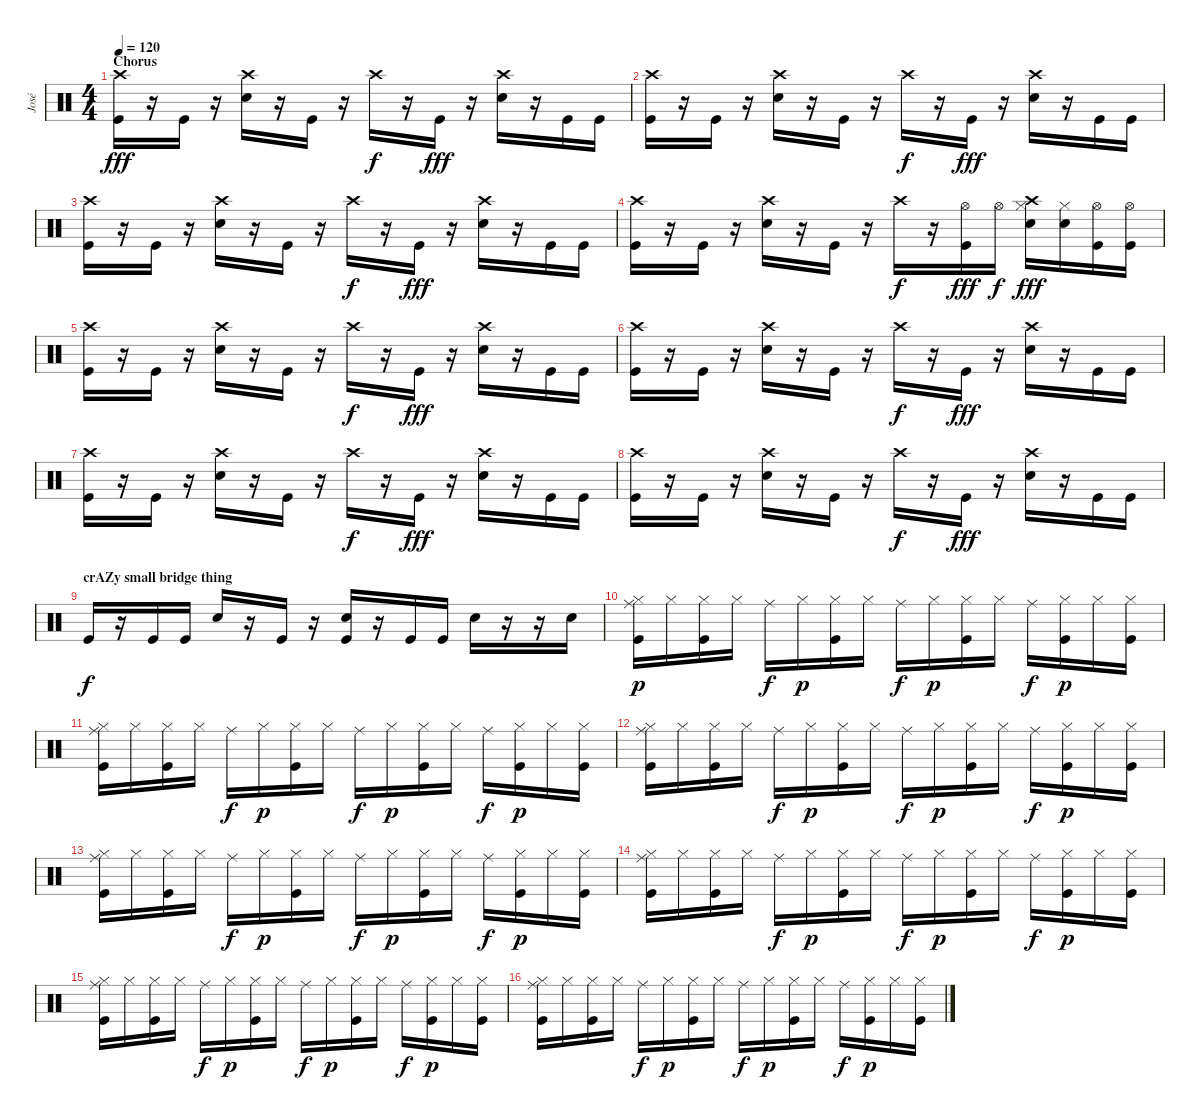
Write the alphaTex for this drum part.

\track ("José" "José") {instrument percussion}
\staff {score}
\articulation defaults
\ts (4 4)
\section ("" "Chorus")
\tempo 120
\clef neutral
\ks c
("Crash high (hit)" "Kick (hit)").16{dy fff} r.16 "Kick (hit)".16 r.16 ("Crash high (hit)" "Electric Snare (hit)").16 r.16 "Kick (hit)".16 r.16 "Crash high (hit)".16{dy f} r.16 "Kick (hit)".16{dy fff} r.16 ("Crash high (hit)" "Electric Snare (hit)").16 r.16 "Kick (hit)".16 "Kick (hit)".16 |
("Crash high (hit)" "Kick (hit)").16 r.16 "Kick (hit)".16 r.16 ("Crash high (hit)" "Electric Snare (hit)").16 r.16 "Kick (hit)".16 r.16 "Crash high (hit)".16{dy f} r.16 "Kick (hit)".16{dy fff} r.16 ("Crash high (hit)" "Electric Snare (hit)").16 r.16 "Kick (hit)".16 "Kick (hit)".16 |
("Crash high (hit)" "Kick (hit)").16 r.16 "Kick (hit)".16 r.16 ("Crash high (hit)" "Electric Snare (hit)").16 r.16 "Kick (hit)".16 r.16 "Crash high (hit)".16{dy f} r.16 "Kick (hit)".16{dy fff} r.16 ("Crash high (hit)" "Electric Snare (hit)").16 r.16 "Kick (hit)".16 "Kick (hit)".16 |
("Crash high (hit)" "Kick (hit)").16 r.16 "Kick (hit)".16 r.16 ("Crash high (hit)" "Electric Snare (hit)").16 r.16 "Kick (hit)".16 r.16 "Crash high (hit)".16{dy f} r.16 ("Hi-Hat (open)" "Kick (hit)").16{dy fff} "Hi-Hat (open)".16{dy f} ("Crash high (hit)" "Hi-Hat (closed)" "Electric Snare (hit)").16{dy fff} ("Hi-Hat (closed)" "Electric Snare (hit)").16 ("Hi-Hat (open)" "Kick (hit)").16 ("Hi-Hat (open)" "Kick (hit)").16 |
("Crash high (hit)" "Kick (hit)").16 r.16 "Kick (hit)".16 r.16 ("Crash high (hit)" "Electric Snare (hit)").16 r.16 "Kick (hit)".16 r.16 "Crash high (hit)".16{dy f} r.16 "Kick (hit)".16{dy fff} r.16 ("Crash high (hit)" "Electric Snare (hit)").16 r.16 "Kick (hit)".16 "Kick (hit)".16 |
("Crash high (hit)" "Kick (hit)").16 r.16 "Kick (hit)".16 r.16 ("Crash high (hit)" "Electric Snare (hit)").16 r.16 "Kick (hit)".16 r.16 "Crash high (hit)".16{dy f} r.16 "Kick (hit)".16{dy fff} r.16 ("Crash high (hit)" "Electric Snare (hit)").16 r.16 "Kick (hit)".16 "Kick (hit)".16 |
("Crash high (hit)" "Kick (hit)").16 r.16 "Kick (hit)".16 r.16 ("Crash high (hit)" "Electric Snare (hit)").16 r.16 "Kick (hit)".16 r.16 "Crash high (hit)".16{dy f} r.16 "Kick (hit)".16{dy fff} r.16 ("Crash high (hit)" "Electric Snare (hit)").16 r.16 "Kick (hit)".16 "Kick (hit)".16 |
("Crash high (hit)" "Kick (hit)").16 r.16 "Kick (hit)".16 r.16 ("Crash high (hit)" "Electric Snare (hit)").16 r.16 "Kick (hit)".16 r.16 "Crash high (hit)".16{dy f} r.16 "Kick (hit)".16{dy fff} r.16 ("Crash high (hit)" "Electric Snare (hit)").16 r.16 "Kick (hit)".16 "Kick (hit)".16 |
\section ("" "crAZy small bridge thing")
"Kick (hit)".16{dy f} r.16 "Kick (hit)".16 "Kick (hit)".16 "Electric Snare (hit)".16 r.16 "Kick (hit)".16 r.16 ("Electric Snare (hit)" "Kick (hit)").16 r.16 "Kick (hit)".16 "Kick (hit)".16 "Electric Snare (hit)".16 r.16 r.16 "Electric Snare (hit)".16 |
("Ride (middle)" "Hi-Hat (closed)" "Kick (hit)").16{dy p} "Hi-Hat (closed)".16 ("Hi-Hat (closed)" "Kick (hit)").16 "Hi-Hat (closed)".16 "Ride (middle)".16{dy f} "Hi-Hat (closed)".16{dy p} ("Hi-Hat (closed)" "Kick (hit)").16 "Hi-Hat (closed)".16 "Ride (middle)".16{dy f} "Hi-Hat (closed)".16{dy p} ("Hi-Hat (closed)" "Kick (hit)").16 "Hi-Hat (closed)".16 "Ride (middle)".16{dy f} ("Hi-Hat (closed)" "Kick (hit)").16{dy p} "Hi-Hat (closed)".16 ("Hi-Hat (closed)" "Kick (hit)").16 |
("Ride (middle)" "Hi-Hat (closed)" "Kick (hit)").16 "Hi-Hat (closed)".16 ("Hi-Hat (closed)" "Kick (hit)").16 "Hi-Hat (closed)".16 "Ride (middle)".16{dy f} "Hi-Hat (closed)".16{dy p} ("Hi-Hat (closed)" "Kick (hit)").16 "Hi-Hat (closed)".16 "Ride (middle)".16{dy f} "Hi-Hat (closed)".16{dy p} ("Hi-Hat (closed)" "Kick (hit)").16 "Hi-Hat (closed)".16 "Ride (middle)".16{dy f} ("Hi-Hat (closed)" "Kick (hit)").16{dy p} "Hi-Hat (closed)".16 ("Hi-Hat (closed)" "Kick (hit)").16 |
("Ride (middle)" "Hi-Hat (closed)" "Kick (hit)").16 "Hi-Hat (closed)".16 ("Hi-Hat (closed)" "Kick (hit)").16 "Hi-Hat (closed)".16 "Ride (middle)".16{dy f} "Hi-Hat (closed)".16{dy p} ("Hi-Hat (closed)" "Kick (hit)").16 "Hi-Hat (closed)".16 "Ride (middle)".16{dy f} "Hi-Hat (closed)".16{dy p} ("Hi-Hat (closed)" "Kick (hit)").16 "Hi-Hat (closed)".16 "Ride (middle)".16{dy f} ("Hi-Hat (closed)" "Kick (hit)").16{dy p} "Hi-Hat (closed)".16 ("Hi-Hat (closed)" "Kick (hit)").16 |
("Ride (middle)" "Hi-Hat (closed)" "Kick (hit)").16 "Hi-Hat (closed)".16 ("Hi-Hat (closed)" "Kick (hit)").16 "Hi-Hat (closed)".16 "Ride (middle)".16{dy f} "Hi-Hat (closed)".16{dy p} ("Hi-Hat (closed)" "Kick (hit)").16 "Hi-Hat (closed)".16 "Ride (middle)".16{dy f} "Hi-Hat (closed)".16{dy p} ("Hi-Hat (closed)" "Kick (hit)").16 "Hi-Hat (closed)".16 "Ride (middle)".16{dy f} ("Hi-Hat (closed)" "Kick (hit)").16{dy p} "Hi-Hat (closed)".16 ("Hi-Hat (closed)" "Kick (hit)").16 |
("Ride (middle)" "Hi-Hat (closed)" "Kick (hit)").16 "Hi-Hat (closed)".16 ("Hi-Hat (closed)" "Kick (hit)").16 "Hi-Hat (closed)".16 "Ride (middle)".16{dy f} "Hi-Hat (closed)".16{dy p} ("Hi-Hat (closed)" "Kick (hit)").16 "Hi-Hat (closed)".16 "Ride (middle)".16{dy f} "Hi-Hat (closed)".16{dy p} ("Hi-Hat (closed)" "Kick (hit)").16 "Hi-Hat (closed)".16 "Ride (middle)".16{dy f} ("Hi-Hat (closed)" "Kick (hit)").16{dy p} "Hi-Hat (closed)".16 ("Hi-Hat (closed)" "Kick (hit)").16 |
("Ride (middle)" "Hi-Hat (closed)" "Kick (hit)").16 "Hi-Hat (closed)".16 ("Hi-Hat (closed)" "Kick (hit)").16 "Hi-Hat (closed)".16 "Ride (middle)".16{dy f} "Hi-Hat (closed)".16{dy p} ("Hi-Hat (closed)" "Kick (hit)").16 "Hi-Hat (closed)".16 "Ride (middle)".16{dy f} "Hi-Hat (closed)".16{dy p} ("Hi-Hat (closed)" "Kick (hit)").16 "Hi-Hat (closed)".16 "Ride (middle)".16{dy f} ("Hi-Hat (closed)" "Kick (hit)").16{dy p} "Hi-Hat (closed)".16 ("Hi-Hat (closed)" "Kick (hit)").16 |
("Ride (middle)" "Hi-Hat (closed)" "Kick (hit)").16 "Hi-Hat (closed)".16 ("Hi-Hat (closed)" "Kick (hit)").16 "Hi-Hat (closed)".16 "Ride (middle)".16{dy f} "Hi-Hat (closed)".16{dy p} ("Hi-Hat (closed)" "Kick (hit)").16 "Hi-Hat (closed)".16 "Ride (middle)".16{dy f} "Hi-Hat (closed)".16{dy p} ("Hi-Hat (closed)" "Kick (hit)").16 "Hi-Hat (closed)".16 "Ride (middle)".16{dy f} ("Hi-Hat (closed)" "Kick (hit)").16{dy p} "Hi-Hat (closed)".16 ("Hi-Hat (closed)" "Kick (hit)").16
